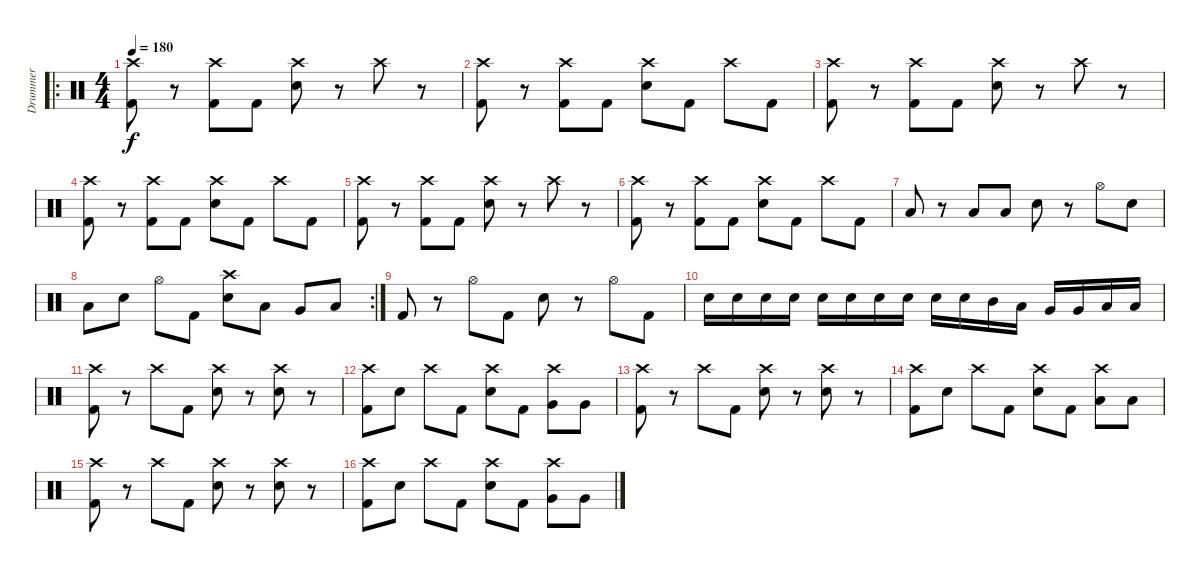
\track ("Drummer" "Drummer") {instrument percussion}
\staff {score}
\articulation defaults
\ro
\ts (4 4)
\tempo 180
\clef neutral
\ks c
("Crash high (hit)" "Kick (hit) 2").8{dy f} r.8 ("Crash high (hit)" "Kick (hit) 2").8 "Kick (hit) 2".8 ("Crash high (hit)" "Electric Snare (hit)").8 r.8 "Crash high (hit)".8 r.8 |
("Crash high (hit)" "Kick (hit) 2").8 r.8 ("Crash high (hit)" "Kick (hit) 2").8 "Kick (hit) 2".8 ("Crash high (hit)" "Electric Snare (hit)").8 "Kick (hit) 2".8 "Crash high (hit)".8 "Kick (hit) 2".8 |
("Crash high (hit)" "Kick (hit) 2").8 r.8 ("Crash high (hit)" "Kick (hit) 2").8 "Kick (hit) 2".8 ("Crash high (hit)" "Electric Snare (hit)").8 r.8 "Crash high (hit)".8 r.8 |
("Crash high (hit)" "Kick (hit) 2").8 r.8 ("Crash high (hit)" "Kick (hit) 2").8 "Kick (hit) 2".8 ("Crash high (hit)" "Electric Snare (hit)").8 "Kick (hit) 2".8 "Crash high (hit)".8 "Kick (hit) 2".8 |
("Crash high (hit)" "Kick (hit) 2").8 r.8 ("Crash high (hit)" "Kick (hit) 2").8 "Kick (hit) 2".8 ("Crash high (hit)" "Electric Snare (hit)").8 r.8 "Crash high (hit)".8 r.8 |
("Crash high (hit)" "Kick (hit) 2").8 r.8 ("Crash high (hit)" "Kick (hit) 2").8 "Kick (hit) 2".8 ("Crash high (hit)" "Electric Snare (hit)").8 "Kick (hit) 2".8 "Crash high (hit)".8 "Kick (hit) 2".8 |
"Low Floor Tom (hit)".8 r.8 "Low Floor Tom (hit)".8 "Low Floor Tom (hit)".8 "Electric Snare (hit)".8 r.8 "Hi-Hat (open)".8 "Electric Snare (hit)".8 |
\rc 2 "Low Tom (hit)".8 "Electric Snare (hit)".8 "Hi-Hat (open)".8 "Kick (hit) 2".8
("Crash high (hit)" "Electric Snare (hit)").8 "Low Tom (hit)".8 "Very Low Tom (hit)".8 "Low Floor Tom (hit)".8 |
"Kick (hit) 2".8 r.8 "Hi-Hat (open)".8 "Kick (hit) 2".8 "Electric Snare (hit)".8 r.8 "Hi-Hat (open)".8 "Kick (hit) 2".8 |
"Electric Snare (hit)".16 "Electric Snare (hit)".16 "Electric Snare (hit)".16 "Electric Snare (hit)".16 "Electric Snare (hit)".16 "Electric Snare (hit)".16 "Electric Snare (hit)".16 "Electric Snare (hit)".16 "Electric Snare (hit)".16 "Electric Snare (hit)".16 "Mid Tom (hit)".16 "Low Tom (hit)".16 "Very Low Tom (hit)".16 "Very Low Tom (hit)".16 "Low Floor Tom (hit)".16 "Low Floor Tom (hit)".16 |
("Crash high (hit)" "Kick (hit) 2").8 r.8 "Crash high (hit)".8 "Kick (hit) 2".8 ("Crash high (hit)" "Electric Snare (hit)").8 r.8 ("Crash high (hit)" "Electric Snare (hit)").8 r.8 |
("Crash high (hit)" "Kick (hit) 2").8 "Electric Snare (hit)".8 "Crash high (hit)".8 "Kick (hit) 2".8 ("Crash high (hit)" "Electric Snare (hit)").8 "Kick (hit) 2".8 ("Crash high (hit)" "Very Low Tom (hit)").8 "Very Low Tom (hit)".8 |
("Crash high (hit)" "Kick (hit) 2").8 r.8 "Crash high (hit)".8 "Kick (hit) 2".8 ("Crash high (hit)" "Electric Snare (hit)").8 r.8 ("Crash high (hit)" "Electric Snare (hit)").8 r.8 |
("Crash high (hit)" "Kick (hit) 2").8 "Electric Snare (hit)".8 "Crash high (hit)".8 "Kick (hit) 2".8 ("Crash high (hit)" "Electric Snare (hit)").8 "Kick (hit) 2".8 ("Crash high (hit)" "Low Floor Tom (hit)").8 "Low Floor Tom (hit)".8 |
("Crash high (hit)" "Kick (hit) 2").8 r.8 "Crash high (hit)".8 "Kick (hit) 2".8 ("Crash high (hit)" "Electric Snare (hit)").8 r.8 ("Crash high (hit)" "Electric Snare (hit)").8 r.8 |
("Crash high (hit)" "Kick (hit) 2").8 "Electric Snare (hit)".8 "Crash high (hit)".8 "Kick (hit) 2".8 ("Crash high (hit)" "Electric Snare (hit)").8 "Kick (hit) 2".8 ("Crash high (hit)" "Very Low Tom (hit)").8 "Very Low Tom (hit)".8
